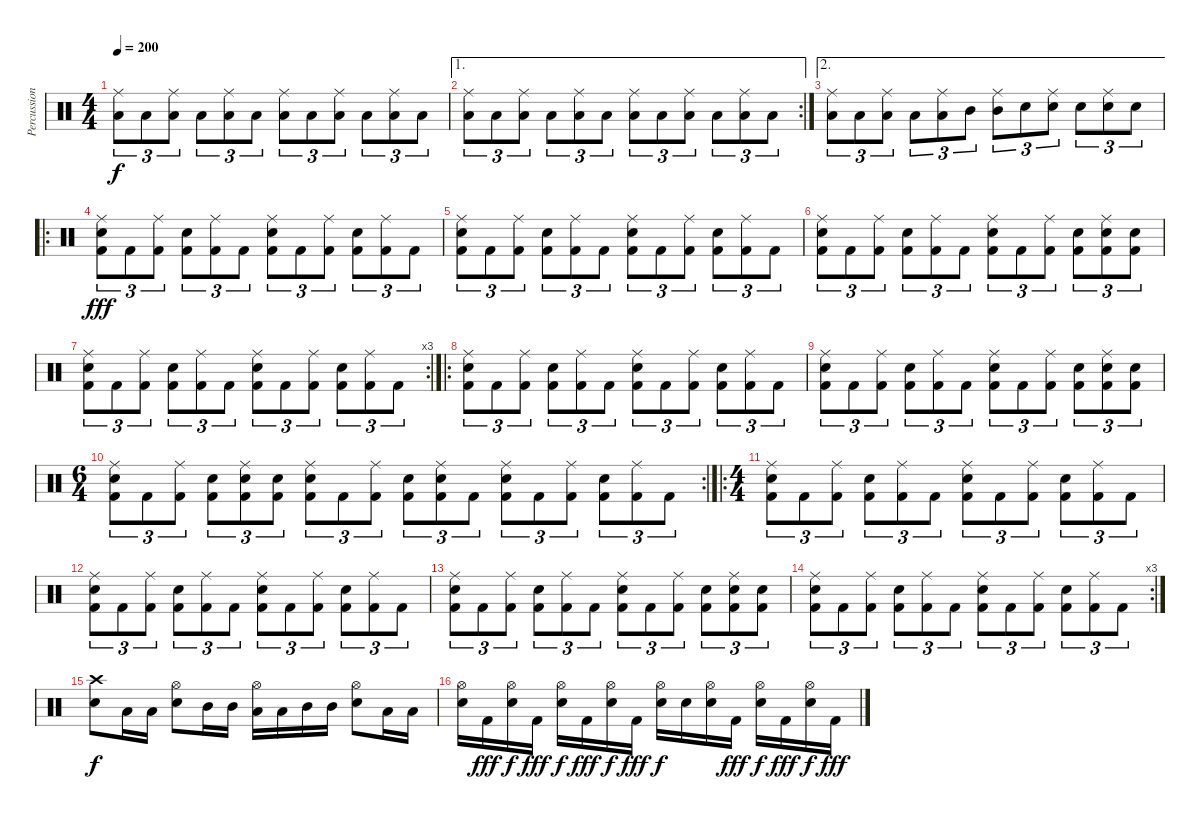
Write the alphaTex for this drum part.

\track ("Percussion" "Percussion") {instrument percussion}
\staff {score}
\articulation defaults
\ts (4 4)
\tempo 200
\clef neutral
\ks c
("Ride (middle)" "Low Tom (hit)").8{tu (3 2) dy f} "Low Tom (hit)".8{tu (3 2)} ("Ride (middle)" "Low Tom (hit)").8{tu (3 2)} "Low Tom (hit)".8{tu (3 2)} ("Ride (middle)" "Low Tom (hit)").8{tu (3 2)} "Low Tom (hit)".8{tu (3 2)} ("Ride (middle)" "Low Tom (hit)").8{tu (3 2)} "Low Tom (hit)".8{tu (3 2)} ("Ride (middle)" "Low Tom (hit)").8{tu (3 2)} "Low Tom (hit)".8{tu (3 2)} ("Ride (middle)" "Low Tom (hit)").8{tu (3 2)} "Low Tom (hit)".8{tu (3 2)} |
\ae 1
\rc 2
("Ride (middle)" "Low Tom (hit)").8{tu (3 2)} "Low Tom (hit)".8{tu (3 2)} ("Ride (middle)" "Low Tom (hit)").8{tu (3 2)} "Low Tom (hit)".8{tu (3 2)} ("Ride (middle)" "Low Tom (hit)").8{tu (3 2)} "Low Tom (hit)".8{tu (3 2)} ("Ride (middle)" "Low Tom (hit)").8{tu (3 2)} "Low Tom (hit)".8{tu (3 2)} ("Ride (middle)" "Low Tom (hit)").8{tu (3 2)} "Low Tom (hit)".8{tu (3 2)} ("Ride (middle)" "Low Tom (hit)").8{tu (3 2)} "Low Tom (hit)".8{tu (3 2)} |
\ae 2
("Ride (middle)" "Low Tom (hit)").8{tu (3 2)} "Low Tom (hit)".8{tu (3 2)} ("Ride (middle)" "Low Tom (hit)").8{tu (3 2)} "Low Tom (hit)".8{tu (3 2)} ("Ride (middle)" "Low Tom (hit)").8{tu (3 2)} "Mid Tom (hit)".8{tu (3 2)} ("Ride (middle)" "Mid Tom (hit)").8{tu (3 2)} "Electric Snare (hit)".8{tu (3 2)} ("Ride (middle)" "Electric Snare (hit)").8{tu (3 2)} "Electric Snare (hit)".8{tu (3 2)} ("Ride (middle)" "Electric Snare (hit)").8{tu (3 2)} "Electric Snare (hit)".8{tu (3 2)} |
\ro
("Ride (middle)" "Electric Snare (hit)" "Kick (hit) 2").8{tu (3 2) dy fff} "Kick (hit) 2".8{tu (3 2)} ("Ride (middle)" "Kick (hit) 2").8{tu (3 2)} ("Electric Snare (hit)" "Kick (hit) 2").8{tu (3 2)} ("Ride (middle)" "Kick (hit) 2").8{tu (3 2)} "Kick (hit) 2".8{tu (3 2)} ("Ride (middle)" "Electric Snare (hit)" "Kick (hit) 2").8{tu (3 2)} "Kick (hit) 2".8{tu (3 2)} ("Ride (middle)" "Kick (hit) 2").8{tu (3 2)} ("Electric Snare (hit)" "Kick (hit) 2").8{tu (3 2)} ("Ride (middle)" "Kick (hit) 2").8{tu (3 2)} "Kick (hit) 2".8{tu (3 2)} |
("Ride (middle)" "Electric Snare (hit)" "Kick (hit) 2").8{tu (3 2)} "Kick (hit) 2".8{tu (3 2)} ("Ride (middle)" "Kick (hit) 2").8{tu (3 2)} ("Electric Snare (hit)" "Kick (hit) 2").8{tu (3 2)} ("Ride (middle)" "Kick (hit) 2").8{tu (3 2)} "Kick (hit) 2".8{tu (3 2)} ("Ride (middle)" "Electric Snare (hit)" "Kick (hit) 2").8{tu (3 2)} "Kick (hit) 2".8{tu (3 2)} ("Ride (middle)" "Kick (hit) 2").8{tu (3 2)} ("Electric Snare (hit)" "Kick (hit) 2").8{tu (3 2)} ("Ride (middle)" "Kick (hit) 2").8{tu (3 2)} "Kick (hit) 2".8{tu (3 2)} |
("Ride (middle)" "Electric Snare (hit)" "Kick (hit) 2").8{tu (3 2)} "Kick (hit) 2".8{tu (3 2)} ("Ride (middle)" "Kick (hit) 2").8{tu (3 2)} ("Electric Snare (hit)" "Kick (hit) 2").8{tu (3 2)} ("Ride (middle)" "Kick (hit) 2").8{tu (3 2)} "Kick (hit) 2".8{tu (3 2)} ("Ride (middle)" "Electric Snare (hit)" "Kick (hit) 2").8{tu (3 2)} "Kick (hit) 2".8{tu (3 2)} ("Ride (middle)" "Kick (hit) 2").8{tu (3 2)} ("Electric Snare (hit)" "Kick (hit) 2").8{tu (3 2)} ("Ride (middle)" "Electric Snare (hit)" "Kick (hit) 2").8{tu (3 2)} ("Electric Snare (hit)" "Kick (hit) 2").8{tu (3 2)} |
\rc 3
("Ride (middle)" "Electric Snare (hit)" "Kick (hit) 2").8{tu (3 2)} "Kick (hit) 2".8{tu (3 2)} ("Ride (middle)" "Kick (hit) 2").8{tu (3 2)} ("Electric Snare (hit)" "Kick (hit) 2").8{tu (3 2)} ("Ride (middle)" "Kick (hit) 2").8{tu (3 2)} "Kick (hit) 2".8{tu (3 2)} ("Ride (middle)" "Electric Snare (hit)" "Kick (hit) 2").8{tu (3 2)} "Kick (hit) 2".8{tu (3 2)} ("Ride (middle)" "Kick (hit) 2").8{tu (3 2)} ("Electric Snare (hit)" "Kick (hit) 2").8{tu (3 2)} ("Ride (middle)" "Kick (hit) 2").8{tu (3 2)} "Kick (hit) 2".8{tu (3 2)} |
\ro
("Ride (middle)" "Electric Snare (hit)" "Kick (hit) 2").8{tu (3 2)} "Kick (hit) 2".8{tu (3 2)} ("Ride (middle)" "Kick (hit) 2").8{tu (3 2)} ("Electric Snare (hit)" "Kick (hit) 2").8{tu (3 2)} ("Ride (middle)" "Kick (hit) 2").8{tu (3 2)} "Kick (hit) 2".8{tu (3 2)} ("Ride (middle)" "Electric Snare (hit)" "Kick (hit) 2").8{tu (3 2)} "Kick (hit) 2".8{tu (3 2)} ("Ride (middle)" "Kick (hit) 2").8{tu (3 2)} ("Electric Snare (hit)" "Kick (hit) 2").8{tu (3 2)} ("Ride (middle)" "Kick (hit) 2").8{tu (3 2)} "Kick (hit) 2".8{tu (3 2)} |
("Ride (middle)" "Electric Snare (hit)" "Kick (hit) 2").8{tu (3 2)} "Kick (hit) 2".8{tu (3 2)} ("Ride (middle)" "Kick (hit) 2").8{tu (3 2)} ("Electric Snare (hit)" "Kick (hit) 2").8{tu (3 2)} ("Ride (middle)" "Kick (hit) 2").8{tu (3 2)} "Kick (hit) 2".8{tu (3 2)} ("Ride (middle)" "Electric Snare (hit)" "Kick (hit) 2").8{tu (3 2)} "Kick (hit) 2".8{tu (3 2)} ("Ride (middle)" "Kick (hit) 2").8{tu (3 2)} ("Electric Snare (hit)" "Kick (hit) 2").8{tu (3 2)} ("Ride (middle)" "Electric Snare (hit)" "Kick (hit) 2").8{tu (3 2)} ("Electric Snare (hit)" "Kick (hit) 2").8{tu (3 2)} |
\rc 2
\ts (6 4)
("Ride (middle)" "Electric Snare (hit)" "Kick (hit) 2").8{tu (3 2)} "Kick (hit) 2".8{tu (3 2)} ("Ride (middle)" "Kick (hit) 2").8{tu (3 2)} ("Electric Snare (hit)" "Kick (hit) 2").8{tu (3 2)} ("Ride (middle)" "Electric Snare (hit)" "Kick (hit) 2").8{tu (3 2)} ("Electric Snare (hit)" "Kick (hit) 2").8{tu (3 2)} ("Ride (middle)" "Electric Snare (hit)" "Kick (hit) 2").8{tu (3 2)} "Kick (hit) 2".8{tu (3 2)} ("Ride (middle)" "Kick (hit) 2").8{tu (3 2)} ("Electric Snare (hit)" "Kick (hit) 2").8{tu (3 2)} ("Ride (middle)" "Electric Snare (hit)" "Kick (hit) 2").8{tu (3 2)} "Kick (hit) 2".8{tu (3 2)} ("Ride (middle)" "Electric Snare (hit)" "Kick (hit) 2").8{tu (3 2)} "Kick (hit) 2".8{tu (3 2)} ("Ride (middle)" "Kick (hit) 2").8{tu (3 2)} ("Electric Snare (hit)" "Kick (hit) 2").8{tu (3 2)} ("Ride (middle)" "Kick (hit) 2").8{tu (3 2)} "Kick (hit) 2".8{tu (3 2)} |
\ro
\ts (4 4)
("Ride (middle)" "Electric Snare (hit)" "Kick (hit) 2").8{tu (3 2)} "Kick (hit) 2".8{tu (3 2)} ("Ride (middle)" "Kick (hit) 2").8{tu (3 2)} ("Electric Snare (hit)" "Kick (hit) 2").8{tu (3 2)} ("Ride (middle)" "Kick (hit) 2").8{tu (3 2)} "Kick (hit) 2".8{tu (3 2)} ("Ride (middle)" "Electric Snare (hit)" "Kick (hit) 2").8{tu (3 2)} "Kick (hit) 2".8{tu (3 2)} ("Ride (middle)" "Kick (hit) 2").8{tu (3 2)} ("Electric Snare (hit)" "Kick (hit) 2").8{tu (3 2)} ("Ride (middle)" "Kick (hit) 2").8{tu (3 2)} "Kick (hit) 2".8{tu (3 2)} |
("Ride (middle)" "Electric Snare (hit)" "Kick (hit) 2").8{tu (3 2)} "Kick (hit) 2".8{tu (3 2)} ("Ride (middle)" "Kick (hit) 2").8{tu (3 2)} ("Electric Snare (hit)" "Kick (hit) 2").8{tu (3 2)} ("Ride (middle)" "Kick (hit) 2").8{tu (3 2)} "Kick (hit) 2".8{tu (3 2)} ("Ride (middle)" "Electric Snare (hit)" "Kick (hit) 2").8{tu (3 2)} "Kick (hit) 2".8{tu (3 2)} ("Ride (middle)" "Kick (hit) 2").8{tu (3 2)} ("Electric Snare (hit)" "Kick (hit) 2").8{tu (3 2)} ("Ride (middle)" "Kick (hit) 2").8{tu (3 2)} "Kick (hit) 2".8{tu (3 2)} |
("Ride (middle)" "Electric Snare (hit)" "Kick (hit) 2").8{tu (3 2)} "Kick (hit) 2".8{tu (3 2)} ("Ride (middle)" "Kick (hit) 2").8{tu (3 2)} ("Electric Snare (hit)" "Kick (hit) 2").8{tu (3 2)} ("Ride (middle)" "Kick (hit) 2").8{tu (3 2)} "Kick (hit) 2".8{tu (3 2)} ("Ride (middle)" "Electric Snare (hit)" "Kick (hit) 2").8{tu (3 2)} "Kick (hit) 2".8{tu (3 2)} ("Ride (middle)" "Kick (hit) 2").8{tu (3 2)} ("Electric Snare (hit)" "Kick (hit) 2").8{tu (3 2)} ("Ride (middle)" "Electric Snare (hit)" "Kick (hit) 2").8{tu (3 2)} ("Electric Snare (hit)" "Kick (hit) 2").8{tu (3 2)} |
\rc 3
("Ride (middle)" "Electric Snare (hit)" "Kick (hit) 2").8{tu (3 2)} "Kick (hit) 2".8{tu (3 2)} ("Ride (middle)" "Kick (hit) 2").8{tu (3 2)} ("Electric Snare (hit)" "Kick (hit) 2").8{tu (3 2)} ("Ride (middle)" "Kick (hit) 2").8{tu (3 2)} "Kick (hit) 2".8{tu (3 2)} ("Ride (middle)" "Electric Snare (hit)" "Kick (hit) 2").8{tu (3 2)} "Kick (hit) 2".8{tu (3 2)} ("Ride (middle)" "Kick (hit) 2").8{tu (3 2)} ("Electric Snare (hit)" "Kick (hit) 2").8{tu (3 2)} ("Ride (middle)" "Kick (hit) 2").8{tu (3 2)} "Kick (hit) 2".8{tu (3 2)} |
("Crash high (hit)" "Electric Snare (hit)").8{dy f} "Low Tom (hit)".16 "Low Tom (hit)".16 ("Hi-Hat (open)" "Electric Snare (hit)").8 "Mid Tom (hit)".16 "Mid Tom (hit)".16 ("Hi-Hat (open)" "Low Tom (hit)").16 "Low Tom (hit)".16 "Mid Tom (hit)".16 "Mid Tom (hit)".16 ("Hi-Hat (open)" "Electric Snare (hit)").8 "Low Tom (hit)".16 "Low Tom (hit)".16 |
("Hi-Hat (open)" "Electric Snare (hit)").16 "Kick (hit) 2".16{dy fff} ("Hi-Hat (open)" "Electric Snare (hit)").16{dy f} "Kick (hit) 2".16{dy fff} ("Hi-Hat (open)" "Electric Snare (hit)").16{dy f} "Kick (hit) 2".16{dy fff} ("Hi-Hat (open)" "Electric Snare (hit)").16{dy f} "Kick (hit) 2".16{dy fff} ("Hi-Hat (open)" "Electric Snare (hit)").16{dy f} "Electric Snare (hit)".16 ("Hi-Hat (open)" "Electric Snare (hit)").16 "Kick (hit) 2".16{dy fff} ("Hi-Hat (open)" "Electric Snare (hit)").16{dy f} "Kick (hit) 2".16{dy fff} ("Hi-Hat (open)" "Electric Snare (hit)").16{dy f} "Kick (hit) 2".16{dy fff}
